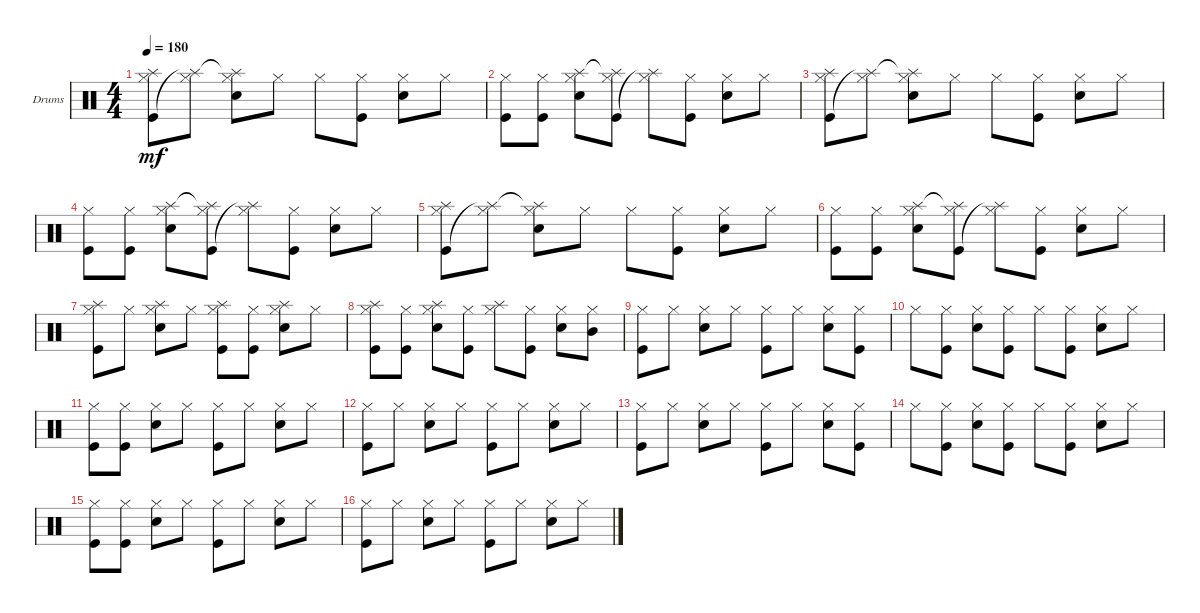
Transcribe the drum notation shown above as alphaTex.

\bracketExtendMode groupsimilarinstruments
\firstSystemTrackNameOrientation horizontal
\otherSystemsTrackNameOrientation horizontal
\track ("Drumkit" "Drums") {instrument percussion}
\staff {score}
\articulation defaults
\ts (4 4)
\tempo 180
\clef neutral
\ks c
("Hi-Hat (closed)" "Kick (hit)" "Splash (hit)").8{dy mf} ("Hi-Hat (closed)" "Splash (hit)"{t}).8 ("Hi-Hat (closed)" "Splash (hit)"{t} "Snare (hit) 2").8 "Hi-Hat (closed)".8 "Hi-Hat (closed)".8 ("Hi-Hat (closed)" "Kick (hit)").8 ("Hi-Hat (closed)" "Snare (hit) 2").8 "Hi-Hat (closed)".8 |
("Hi-Hat (closed)" "Kick (hit)").8 ("Hi-Hat (closed)" "Kick (hit)").8 ("Hi-Hat (closed)" "Snare (hit) 2" "Splash (hit)").8 ("Hi-Hat (closed)" "Kick (hit)" "Splash (hit)"{t}).8 ("Hi-Hat (closed)" "Splash (hit)"{t}).8 ("Hi-Hat (closed)" "Kick (hit)").8 ("Hi-Hat (closed)" "Snare (hit) 2").8 "Hi-Hat (closed)".8 |
("Hi-Hat (closed)" "Kick (hit)" "Splash (hit)").8 ("Hi-Hat (closed)" "Splash (hit)"{t}).8 ("Hi-Hat (closed)" "Splash (hit)"{t} "Snare (hit) 2").8 "Hi-Hat (closed)".8 "Hi-Hat (closed)".8 ("Hi-Hat (closed)" "Kick (hit)").8 ("Hi-Hat (closed)" "Snare (hit) 2").8 "Hi-Hat (closed)".8 |
("Hi-Hat (closed)" "Kick (hit)").8 ("Hi-Hat (closed)" "Kick (hit)").8 ("Hi-Hat (closed)" "Snare (hit) 2" "Splash (hit)").8 ("Hi-Hat (closed)" "Kick (hit)" "Splash (hit)"{t}).8 ("Hi-Hat (closed)" "Splash (hit)"{t}).8 ("Hi-Hat (closed)" "Kick (hit)").8 ("Hi-Hat (closed)" "Snare (hit) 2").8 "Hi-Hat (closed)".8 |
("Hi-Hat (closed)" "Kick (hit)" "Splash (hit)").8 ("Hi-Hat (closed)" "Splash (hit)"{t}).8 ("Hi-Hat (closed)" "Splash (hit)"{t} "Snare (hit) 2").8 "Hi-Hat (closed)".8 "Hi-Hat (closed)".8 ("Hi-Hat (closed)" "Kick (hit)").8 ("Hi-Hat (closed)" "Snare (hit) 2").8 "Hi-Hat (closed)".8 |
("Hi-Hat (closed)" "Kick (hit)").8 ("Hi-Hat (closed)" "Kick (hit)").8 ("Hi-Hat (closed)" "Snare (hit) 2" "Splash (hit)").8 ("Hi-Hat (closed)" "Kick (hit)" "Splash (hit)"{t}).8 ("Hi-Hat (closed)" "Splash (hit)"{t}).8 ("Hi-Hat (closed)" "Kick (hit)").8 ("Hi-Hat (closed)" "Snare (hit) 2").8 "Hi-Hat (closed)".8 |
("Hi-Hat (closed)" "Kick (hit)" "Splash (hit)").8 "Hi-Hat (closed)".8 ("Hi-Hat (closed)" "Snare (hit) 2" "Splash (hit)").8 "Hi-Hat (closed)".8 ("Hi-Hat (closed)" "Kick (hit)" "Splash (hit)").8 ("Hi-Hat (closed)" "Kick (hit)").8 ("Hi-Hat (closed)" "Snare (hit) 2" "Splash (hit)").8 "Hi-Hat (closed)".8 |
("Hi-Hat (closed)" "Kick (hit)" "Splash (hit)").8 ("Hi-Hat (closed)" "Kick (hit)").8 ("Hi-Hat (closed)" "Snare (hit) 2" "Splash (hit)").8 ("Hi-Hat (closed)" "Kick (hit)").8 ("Hi-Hat (closed)" "Splash (hit)").8 ("Hi-Hat (closed)" "Kick (hit)").8 ("Hi-Hat (closed)" "Snare (hit) 2").8 ("Hi-Hat (closed)" "Mid Tom (hit)").8 |
("Hi-Hat (closed)" "Kick (hit)").8 "Hi-Hat (closed)".8 ("Hi-Hat (closed)" "Snare (hit) 2").8 "Hi-Hat (closed)".8 ("Hi-Hat (closed)" "Kick (hit)").8 "Hi-Hat (closed)".8 ("Hi-Hat (closed)" "Snare (hit) 2").8 ("Hi-Hat (closed)" "Kick (hit)").8 |
"Hi-Hat (closed)".8 ("Hi-Hat (closed)" "Kick (hit)").8 ("Hi-Hat (closed)" "Snare (hit) 2").8 ("Hi-Hat (closed)" "Kick (hit)").8 "Hi-Hat (closed)".8 ("Hi-Hat (closed)" "Kick (hit)").8 ("Hi-Hat (closed)" "Snare (hit) 2").8 "Hi-Hat (closed)".8 |
("Hi-Hat (closed)" "Kick (hit)").8 ("Hi-Hat (closed)" "Kick (hit)").8 ("Hi-Hat (closed)" "Snare (hit) 2").8 "Hi-Hat (closed)".8 ("Hi-Hat (closed)" "Kick (hit)").8 "Hi-Hat (closed)".8 ("Hi-Hat (closed)" "Snare (hit) 2").8 "Hi-Hat (closed)".8 |
("Hi-Hat (closed)" "Kick (hit)").8 "Hi-Hat (closed)".8 ("Hi-Hat (closed)" "Snare (hit) 2").8 "Hi-Hat (closed)".8 ("Hi-Hat (closed)" "Kick (hit)").8 "Hi-Hat (closed)".8 ("Hi-Hat (closed)" "Snare (hit) 2").8 "Hi-Hat (closed)".8 |
("Hi-Hat (closed)" "Kick (hit)").8 "Hi-Hat (closed)".8 ("Hi-Hat (closed)" "Snare (hit) 2").8 "Hi-Hat (closed)".8 ("Hi-Hat (closed)" "Kick (hit)").8 "Hi-Hat (closed)".8 ("Hi-Hat (closed)" "Snare (hit) 2").8 ("Hi-Hat (closed)" "Kick (hit)").8 |
"Hi-Hat (closed)".8 ("Hi-Hat (closed)" "Kick (hit)").8 ("Hi-Hat (closed)" "Snare (hit) 2").8 ("Hi-Hat (closed)" "Kick (hit)").8 "Hi-Hat (closed)".8 ("Hi-Hat (closed)" "Kick (hit)").8 ("Hi-Hat (closed)" "Snare (hit) 2").8 "Hi-Hat (closed)".8 |
("Hi-Hat (closed)" "Kick (hit)").8 ("Hi-Hat (closed)" "Kick (hit)").8 ("Hi-Hat (closed)" "Snare (hit) 2").8 "Hi-Hat (closed)".8 ("Hi-Hat (closed)" "Kick (hit)").8 "Hi-Hat (closed)".8 ("Hi-Hat (closed)" "Snare (hit) 2").8 "Hi-Hat (closed)".8 |
("Hi-Hat (closed)" "Kick (hit)").8 "Hi-Hat (closed)".8 ("Hi-Hat (closed)" "Snare (hit) 2").8 "Hi-Hat (closed)".8 ("Hi-Hat (closed)" "Kick (hit)").8 "Hi-Hat (closed)".8 ("Hi-Hat (closed)" "Snare (hit) 2").8 "Hi-Hat (closed)".8
